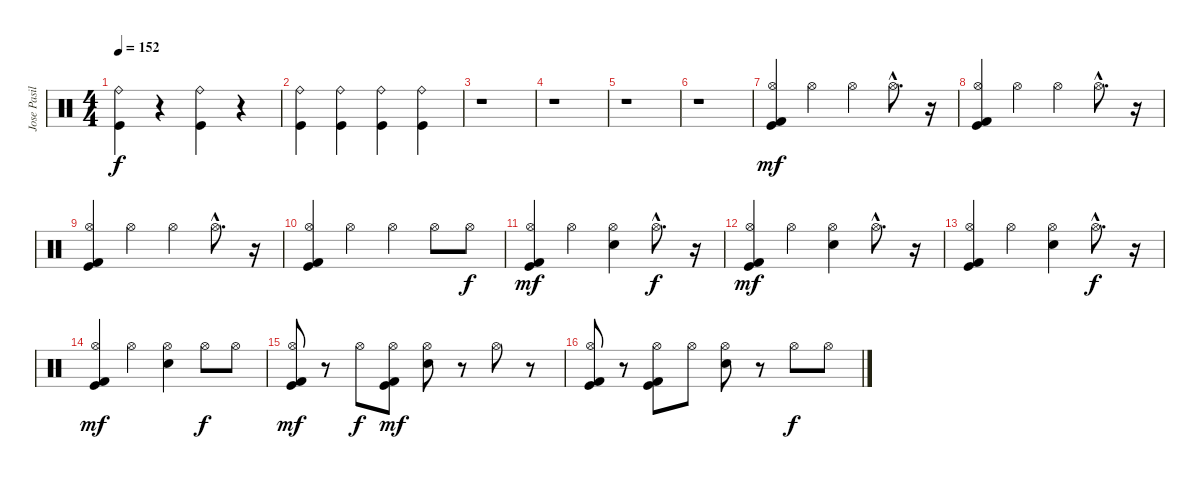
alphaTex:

\track ("Jose Pasillas" "Jose Pasil") {instrument percussion}
\staff {score}
\articulation defaults
\ts (4 4)
\tempo 152
\clef neutral
\ks c
("Ride (bell)" "Kick (hit)").4{dy f} r.4 ("Ride (bell)" "Kick (hit)").4 r.4 |
("Ride (bell)" "Kick (hit)").4 ("Ride (bell)" "Kick (hit)").4 ("Ride (bell)" "Kick (hit)").4 ("Ride (bell)" "Kick (hit)").4 |
r.1 |
r.1 |
r.1 |
r.1 |
("Hi-Hat (open)" "Kick (hit)" "Kick (hit) 2").4{dy mf} "Hi-Hat (open)".4 "Hi-Hat (open)".4 "Hi-Hat (open)"{hac}.8{d} r.16 |
("Hi-Hat (open)" "Kick (hit)" "Kick (hit) 2").4 "Hi-Hat (open)".4 "Hi-Hat (open)".4 "Hi-Hat (open)"{hac}.8{d} r.16 |
("Hi-Hat (open)" "Kick (hit)" "Kick (hit) 2").4 "Hi-Hat (open)".4 "Hi-Hat (open)".4 "Hi-Hat (open)"{hac}.8{d} r.16 |
("Hi-Hat (open)" "Kick (hit)" "Kick (hit) 2").4 "Hi-Hat (open)".4 "Hi-Hat (open)".4 "Hi-Hat (open)".8 "Hi-Hat (open)".8{dy f} |
("Hi-Hat (open)" "Kick (hit)" "Kick (hit) 2").4{dy mf} "Hi-Hat (open)".4 ("Hi-Hat (open)" "Electric Snare (hit)").4 "Hi-Hat (open)"{hac}.8{d dy f} r.16 |
("Hi-Hat (open)" "Kick (hit)" "Kick (hit) 2").4{dy mf} "Hi-Hat (open)".4 ("Hi-Hat (open)" "Electric Snare (hit)").4 "Hi-Hat (open)"{hac}.8{d} r.16 |
("Hi-Hat (open)" "Kick (hit)" "Kick (hit) 2").4 "Hi-Hat (open)".4 ("Hi-Hat (open)" "Electric Snare (hit)").4 "Hi-Hat (open)"{hac}.8{d dy f} r.16 |
("Hi-Hat (open)" "Kick (hit)" "Kick (hit) 2").4{dy mf} "Hi-Hat (open)".4 ("Hi-Hat (open)" "Electric Snare (hit)").4 "Hi-Hat (open)".8{dy f} "Hi-Hat (open)".8 |
("Hi-Hat (open)" "Kick (hit) 2" "Kick (hit)").8{dy mf} r.8 "Hi-Hat (open)".8{dy f} ("Hi-Hat (open)" "Kick (hit) 2" "Kick (hit)").8{dy mf} ("Hi-Hat (open)" "Electric Snare (hit)").8 r.8 "Hi-Hat (open)".8 r.8 |
("Hi-Hat (open)" "Kick (hit) 2" "Kick (hit)").8 r.8 ("Hi-Hat (open)" "Kick (hit)" "Kick (hit) 2").8 "Hi-Hat (open)".8 ("Hi-Hat (open)" "Electric Snare (hit)").8 r.8 "Hi-Hat (open)".8{dy f} "Hi-Hat (open)".8
